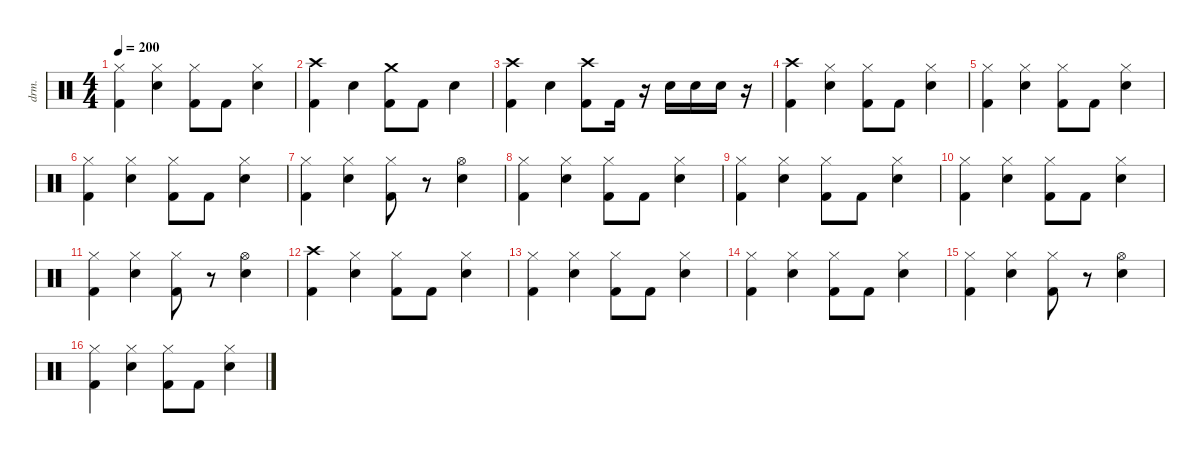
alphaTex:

\defaultSystemsLayout 4
\hideDynamics
\bracketExtendMode nobrackets
\track ("Drums" "drm.") {instrument percussion}
\staff {score}
\articulation defaults
\ts (4 4)
\tempo 200
\clef neutral
\ks c
("Hi-Hat (closed)" "Kick (hit) 2").4{dy f} ("Hi-Hat (closed)" "Snare (hit) 2").4 ("Hi-Hat (closed)" "Kick (hit) 2").8 "Kick (hit) 2".8 ("Hi-Hat (closed)" "Snare (hit) 2").4 |
("Crash high (hit)" "Kick (hit) 2").4 "Snare (hit) 2".4 ("Crash medium (hit)" "Kick (hit) 2").8 "Kick (hit) 2".8 "Snare (hit) 2".4 |
("Crash high (hit)" "Kick (hit) 2").4 "Snare (hit) 2".4 ("Crash high (hit)" "Kick (hit) 2").8 "Kick (hit) 2".16 r.16 "Snare (hit) 2".16{dy ff} "Snare (hit) 2".16 "Snare (hit) 2".16 r.16 |
("Crash high (hit)" "Kick (hit) 2").4 ("Hi-Hat (closed)" "Snare (hit) 2").4{dy f} ("Hi-Hat (closed)" "Kick (hit) 2").8 "Kick (hit) 2".8 ("Hi-Hat (closed)" "Snare (hit) 2").4 |
("Hi-Hat (closed)" "Kick (hit) 2").4 ("Hi-Hat (closed)" "Snare (hit) 2").4 ("Hi-Hat (closed)" "Kick (hit) 2").8 "Kick (hit) 2".8 ("Hi-Hat (closed)" "Snare (hit) 2").4 |
("Hi-Hat (closed)" "Kick (hit) 2").4 ("Hi-Hat (closed)" "Snare (hit) 2").4 ("Hi-Hat (closed)" "Kick (hit) 2").8 "Kick (hit) 2".8 ("Hi-Hat (closed)" "Snare (hit) 2").4 |
("Hi-Hat (closed)" "Kick (hit) 2").4 ("Hi-Hat (closed)" "Snare (hit) 2").4 ("Hi-Hat (closed)" "Kick (hit) 2").8 r.8 ("Hi-Hat (open)" "Snare (hit) 2").4 |
("Hi-Hat (closed)" "Kick (hit) 2").4{dy ff} ("Hi-Hat (closed)" "Snare (hit) 2").4{dy f} ("Hi-Hat (closed)" "Kick (hit) 2").8 "Kick (hit) 2".8 ("Hi-Hat (closed)" "Snare (hit) 2").4 |
("Hi-Hat (closed)" "Kick (hit) 2").4 ("Hi-Hat (closed)" "Snare (hit) 2").4 ("Hi-Hat (closed)" "Kick (hit) 2").8 "Kick (hit) 2".8 ("Hi-Hat (closed)" "Snare (hit) 2").4 |
("Hi-Hat (closed)" "Kick (hit) 2").4 ("Hi-Hat (closed)" "Snare (hit) 2").4 ("Hi-Hat (closed)" "Kick (hit) 2").8 "Kick (hit) 2".8 ("Hi-Hat (closed)" "Snare (hit) 2").4 |
("Hi-Hat (closed)" "Kick (hit) 2").4 ("Hi-Hat (closed)" "Snare (hit) 2").4 ("Hi-Hat (closed)" "Kick (hit) 2").8 r.8 ("Hi-Hat (open)" "Snare (hit) 2").4 |
("Crash high (hit)" "Kick (hit) 2").4{dy ff} ("Hi-Hat (closed)" "Snare (hit) 2").4{dy f} ("Hi-Hat (closed)" "Kick (hit) 2").8 "Kick (hit) 2".8 ("Hi-Hat (closed)" "Snare (hit) 2").4 |
("Hi-Hat (closed)" "Kick (hit) 2").4 ("Hi-Hat (closed)" "Snare (hit) 2").4 ("Hi-Hat (closed)" "Kick (hit) 2").8 "Kick (hit) 2".8 ("Hi-Hat (closed)" "Snare (hit) 2").4 |
("Hi-Hat (closed)" "Kick (hit) 2").4 ("Hi-Hat (closed)" "Snare (hit) 2").4 ("Hi-Hat (closed)" "Kick (hit) 2").8 "Kick (hit) 2".8 ("Hi-Hat (closed)" "Snare (hit) 2").4 |
("Hi-Hat (closed)" "Kick (hit) 2").4 ("Hi-Hat (closed)" "Snare (hit) 2").4 ("Hi-Hat (closed)" "Kick (hit) 2").8 r.8 ("Hi-Hat (open)" "Snare (hit) 2").4 |
("Hi-Hat (closed)" "Kick (hit) 2").4{dy ff} ("Hi-Hat (closed)" "Snare (hit) 2").4{dy f} ("Hi-Hat (closed)" "Kick (hit) 2").8 "Kick (hit) 2".8 ("Hi-Hat (closed)" "Snare (hit) 2").4
